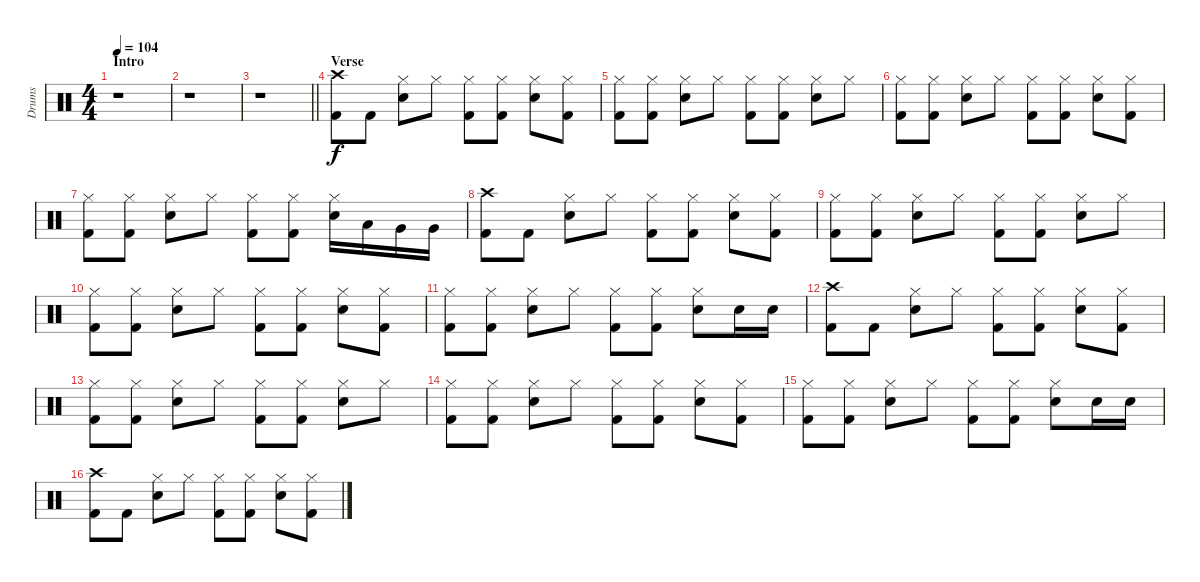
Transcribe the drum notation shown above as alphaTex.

\track ("Drums" "Drums") {instrument percussion}
\staff {score}
\articulation defaults
\ts (4 4)
\section ("" "Intro")
\tempo 104
\clef neutral
\ks c
r.1{dy f} |
r.1 |
\barLineRight lightlight
r.1 |
\section ("" "Verse")
("Crash high (hit)" "Kick (hit) 2").8 "Kick (hit) 2".8 ("Hi-Hat (closed)" "Electric Snare (hit)").8 "Hi-Hat (closed)".8 ("Hi-Hat (closed)" "Kick (hit) 2").8 ("Hi-Hat (closed)" "Kick (hit) 2").8 ("Hi-Hat (closed)" "Electric Snare (hit)").8 ("Hi-Hat (closed)" "Kick (hit) 2").8 |
("Hi-Hat (closed)" "Kick (hit) 2").8 ("Hi-Hat (closed)" "Kick (hit) 2").8 ("Hi-Hat (closed)" "Electric Snare (hit)").8 "Hi-Hat (closed)".8 ("Hi-Hat (closed)" "Kick (hit) 2").8 ("Hi-Hat (closed)" "Kick (hit) 2").8 ("Hi-Hat (closed)" "Electric Snare (hit)").8 "Hi-Hat (closed)".8 |
("Hi-Hat (closed)" "Kick (hit) 2").8 ("Hi-Hat (closed)" "Kick (hit) 2").8 ("Hi-Hat (closed)" "Electric Snare (hit)").8 "Hi-Hat (closed)".8 ("Hi-Hat (closed)" "Kick (hit) 2").8 ("Hi-Hat (closed)" "Kick (hit) 2").8 ("Hi-Hat (closed)" "Electric Snare (hit)").8 ("Hi-Hat (closed)" "Kick (hit) 2").8 |
("Hi-Hat (closed)" "Kick (hit) 2").8 ("Hi-Hat (closed)" "Kick (hit) 2").8 ("Hi-Hat (closed)" "Electric Snare (hit)").8 "Hi-Hat (closed)".8 ("Hi-Hat (closed)" "Kick (hit) 2").8 ("Hi-Hat (closed)" "Kick (hit) 2").8 ("Hi-Hat (closed)" "Electric Snare (hit)").16 "Low Tom (hit)".16 "Very Low Tom (hit)".16 "Very Low Tom (hit)".16 |
("Crash high (hit)" "Kick (hit) 2").8 "Kick (hit) 2".8 ("Hi-Hat (closed)" "Electric Snare (hit)").8 "Hi-Hat (closed)".8 ("Hi-Hat (closed)" "Kick (hit) 2").8 ("Hi-Hat (closed)" "Kick (hit) 2").8 ("Hi-Hat (closed)" "Electric Snare (hit)").8 ("Hi-Hat (closed)" "Kick (hit) 2").8 |
("Hi-Hat (closed)" "Kick (hit) 2").8 ("Hi-Hat (closed)" "Kick (hit) 2").8 ("Hi-Hat (closed)" "Electric Snare (hit)").8 "Hi-Hat (closed)".8 ("Hi-Hat (closed)" "Kick (hit) 2").8 ("Hi-Hat (closed)" "Kick (hit) 2").8 ("Hi-Hat (closed)" "Electric Snare (hit)").8 "Hi-Hat (closed)".8 |
("Hi-Hat (closed)" "Kick (hit) 2").8 ("Hi-Hat (closed)" "Kick (hit) 2").8 ("Hi-Hat (closed)" "Electric Snare (hit)").8 "Hi-Hat (closed)".8 ("Hi-Hat (closed)" "Kick (hit) 2").8 ("Hi-Hat (closed)" "Kick (hit) 2").8 ("Hi-Hat (closed)" "Electric Snare (hit)").8 ("Hi-Hat (closed)" "Kick (hit) 2").8 |
("Hi-Hat (closed)" "Kick (hit) 2").8 ("Hi-Hat (closed)" "Kick (hit) 2").8 ("Hi-Hat (closed)" "Electric Snare (hit)").8 "Hi-Hat (closed)".8 ("Hi-Hat (closed)" "Kick (hit) 2").8 ("Hi-Hat (closed)" "Kick (hit) 2").8 ("Hi-Hat (closed)" "Electric Snare (hit)").8 "Electric Snare (hit)".16 "Electric Snare (hit)".16 |
("Crash high (hit)" "Kick (hit) 2").8 "Kick (hit) 2".8 ("Hi-Hat (closed)" "Electric Snare (hit)").8 "Hi-Hat (closed)".8 ("Hi-Hat (closed)" "Kick (hit) 2").8 ("Hi-Hat (closed)" "Kick (hit) 2").8 ("Hi-Hat (closed)" "Electric Snare (hit)").8 ("Hi-Hat (closed)" "Kick (hit) 2").8 |
("Hi-Hat (closed)" "Kick (hit) 2").8 ("Hi-Hat (closed)" "Kick (hit) 2").8 ("Hi-Hat (closed)" "Electric Snare (hit)").8 "Hi-Hat (closed)".8 ("Hi-Hat (closed)" "Kick (hit) 2").8 ("Hi-Hat (closed)" "Kick (hit) 2").8 ("Hi-Hat (closed)" "Electric Snare (hit)").8 "Hi-Hat (closed)".8 |
("Hi-Hat (closed)" "Kick (hit) 2").8 ("Hi-Hat (closed)" "Kick (hit) 2").8 ("Hi-Hat (closed)" "Electric Snare (hit)").8 "Hi-Hat (closed)".8 ("Hi-Hat (closed)" "Kick (hit) 2").8 ("Hi-Hat (closed)" "Kick (hit) 2").8 ("Hi-Hat (closed)" "Electric Snare (hit)").8 ("Hi-Hat (closed)" "Kick (hit) 2").8 |
("Hi-Hat (closed)" "Kick (hit) 2").8 ("Hi-Hat (closed)" "Kick (hit) 2").8 ("Hi-Hat (closed)" "Electric Snare (hit)").8 "Hi-Hat (closed)".8 ("Hi-Hat (closed)" "Kick (hit) 2").8 ("Hi-Hat (closed)" "Kick (hit) 2").8 ("Hi-Hat (closed)" "Electric Snare (hit)").8 "Electric Snare (hit)".16 "Electric Snare (hit)".16 |
("Crash high (hit)" "Kick (hit) 2").8 "Kick (hit) 2".8 ("Hi-Hat (closed)" "Electric Snare (hit)").8 "Hi-Hat (closed)".8 ("Hi-Hat (closed)" "Kick (hit) 2").8 ("Hi-Hat (closed)" "Kick (hit) 2").8 ("Hi-Hat (closed)" "Electric Snare (hit)").8 ("Hi-Hat (closed)" "Kick (hit) 2").8
